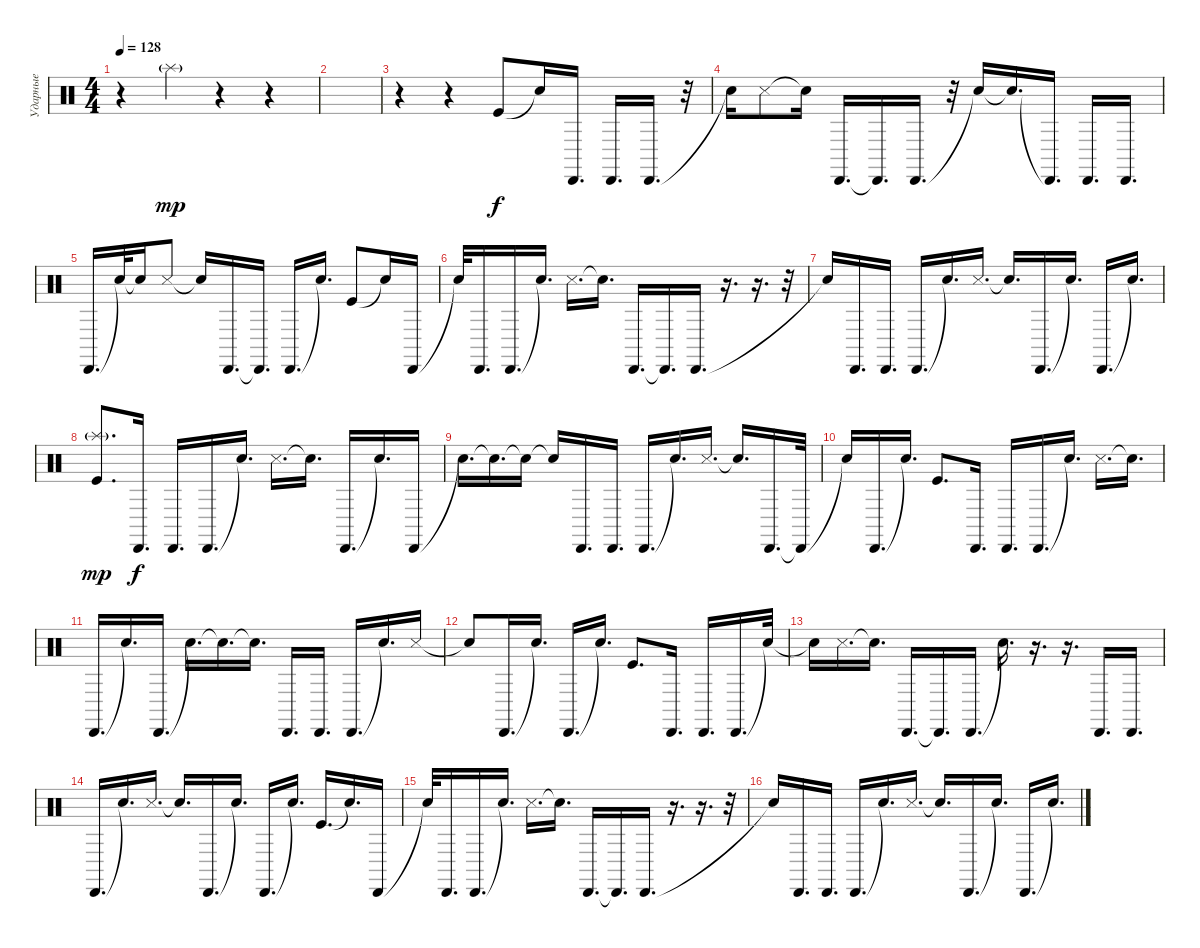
\track ("Ударные" "Ударные") {instrument percussion}
\staff {score}
\articulation defaults
\ts (4 4)
\tempo 128
\clef neutral
\ks c
r.4{dy mp} "Splash (hit)"{g}.4 r.4 r.4 |
|
r.4 r.4 "Kick (hit)".8{dy f} "Snare (hit)"{t}.16 "Cabasa (hit)".16{d} "Cabasa (hit)".16{d} "Cabasa (hit)".16{d} r.32 |
"Snare (hit)"{t}.16 "Metronome (hit)".8 "Snare (hit)"{t}.16 "Cabasa (hit)".16{d} "Cabasa (hit)"{t}.16{d} "Cabasa (hit)".16{d} r.32 "Snare (hit)"{t}.16 "Snare (hit)"{t}.16{d} "Cabasa (hit)"{t}.16{d} "Cabasa (hit)".16{d} "Cabasa (hit)".16{d} |
"Cabasa (hit)".16{d} "Snare (hit)"{t}.32 "Snare (hit)"{t}.16 "Metronome (hit)".8 "Snare (hit)"{t}.16 "Cabasa (hit)".16{d} "Cabasa (hit)"{t}.16{d} "Cabasa (hit)".16{d} "Snare (hit)"{t}.16{d} "Kick (hit)".8 "Snare (hit)"{t}.16 "Cabasa (hit)".16 |
"Snare (hit)"{t}.32 "Cabasa (hit)".16{d} "Cabasa (hit)".16{d} "Snare (hit)"{t}.16{d} "Metronome (hit)".16{d} "Snare (hit)"{t}.16{d} "Cabasa (hit)".16{d} "Cabasa (hit)"{t}.16{d} "Cabasa (hit)".16{d} r.16{d} r.16{d} r.32 |
"Snare (hit)"{t}.16 "Cabasa (hit)".16{d} "Cabasa (hit)".16{d} "Cabasa (hit)".16{d} "Snare (hit)"{t}.16{d} "Metronome (hit)".16{d} "Snare (hit)"{t}.16{d} "Cabasa (hit)".16{d} "Snare (hit)"{t}.16{d} "Cabasa (hit)".16{d} "Snare (hit)"{t}.16{d} |
("Splash (hit)"{g} "Kick (hit)").8{d dy mp} "Cabasa (hit)".16{d dy f} "Cabasa (hit)".16{d} "Cabasa (hit)".16{d} "Snare (hit)"{t}.16{d} "Metronome (hit)".16{d} "Snare (hit)"{t}.16{d} "Cabasa (hit)".16{d} "Snare (hit)"{t}.16{d} "Cabasa (hit)".16 |
"Snare (hit)"{t}.16{d} "Snare (hit)"{t}.16{d} "Snare (hit)"{t}.16 "Snare (hit)"{t}.16 "Cabasa (hit)".16{d} "Cabasa (hit)".16{d} "Cabasa (hit)".16{d} "Snare (hit)"{t}.16{d} "Metronome (hit)".16{d} "Snare (hit)"{t}.16{d} "Cabasa (hit)".16{d} "Cabasa (hit)"{t}.32 |
"Snare (hit)"{t}.16 "Cabasa (hit)".16{d} "Snare (hit)"{t}.16{d} "Kick (hit)".8{d} "Cabasa (hit)".16{d} "Cabasa (hit)".16{d} "Cabasa (hit)".16{d} "Snare (hit)"{t}.16{d} "Metronome (hit)".16{d} "Snare (hit)"{t}.16{d} |
"Cabasa (hit)".16{d} "Snare (hit)"{t}.16{d} "Cabasa (hit)".16{d} "Snare (hit)"{t}.16{d} "Snare (hit)"{t}.16{d} "Snare (hit)"{t}.16{d} "Cabasa (hit)".16{d} "Cabasa (hit)".16{d} "Cabasa (hit)".16{d} "Snare (hit)"{t}.16{d} "Metronome (hit)".16 |
"Snare (hit)"{t}.8 "Cabasa (hit)".16{d} "Snare (hit)"{t}.16{d} "Cabasa (hit)".16{d} "Snare (hit)"{t}.16{d} "Kick (hit)".8{d} "Cabasa (hit)".16{d} "Cabasa (hit)".16{d} "Cabasa (hit)".16{d} "Snare (hit)"{t}.32 |
"Snare (hit)"{t}.16 "Metronome (hit)".16{d} "Snare (hit)"{t}.16{d} "Cabasa (hit)".16{d} "Cabasa (hit)"{t}.16{d} "Cabasa (hit)".16{d} "Snare (hit)"{t}.16{d} r.16{d} r.16{d} "Cabasa (hit)".16{d} "Cabasa (hit)".16{d} |
"Cabasa (hit)".16{d} "Snare (hit)"{t}.16{d} "Metronome (hit)".16{d} "Snare (hit)"{t}.16{d} "Cabasa (hit)".16{d} "Snare (hit)"{t}.16{d} "Cabasa (hit)".16{d} "Snare (hit)"{t}.16{d} "Kick (hit)".16{d} "Snare (hit)"{t}.16{d} "Cabasa (hit)".16 |
"Snare (hit)"{t}.32 "Cabasa (hit)".16{d} "Cabasa (hit)".16{d} "Snare (hit)"{t}.16{d} "Metronome (hit)".16{d} "Snare (hit)"{t}.16{d} "Cabasa (hit)".16{d} "Cabasa (hit)"{t}.16{d} "Cabasa (hit)".16{d} r.16{d} r.16{d} r.32 |
"Snare (hit)"{t}.16 "Cabasa (hit)".16{d} "Cabasa (hit)".16{d} "Cabasa (hit)".16{d} "Snare (hit)"{t}.16{d} "Metronome (hit)".16{d} "Snare (hit)"{t}.16{d} "Cabasa (hit)".16{d} "Snare (hit)"{t}.16{d} "Cabasa (hit)".16{d} "Snare (hit)"{t}.16{d}
